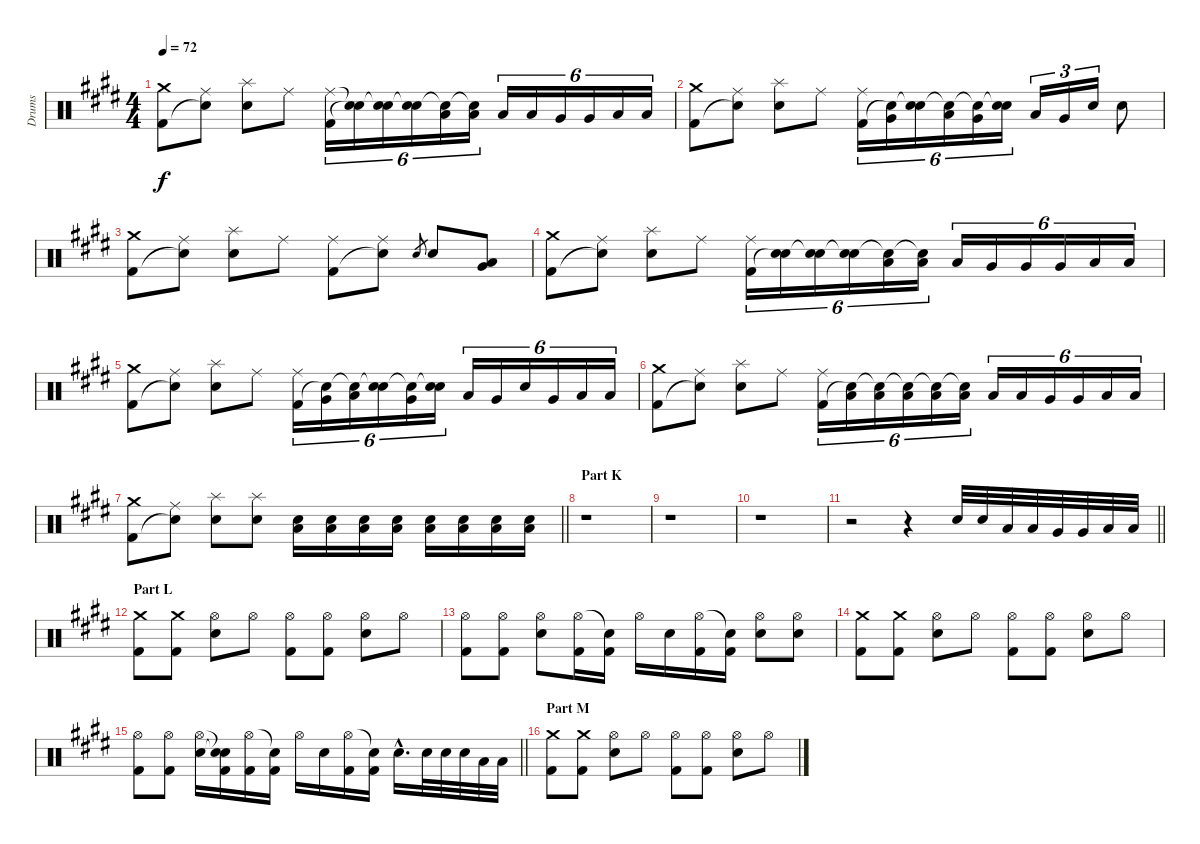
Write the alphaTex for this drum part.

\track ("Drums" "Drums") {instrument percussion}
\staff {score}
\articulation defaults
\ts (4 4)
\tempo 72
\clef neutral
\ks e
("Crash medium (hit)" "Kick (hit) 2").8{dy f} ("Ride (middle)" "Snare (hit)"{t}).8 ("Splash (hit)" "Electric Snare (hit)").8 "Ride (middle)".8 ("Ride (middle)" "Kick (hit) 2").16{tu (6 4)} ("Snare (hit)"{t} "Snare (hit)"{t}).16{tu (6 4)} ("Electric Snare (hit)" "Snare (hit)"{t}).16{tu (6 4)} ("Electric Snare (hit)" "Snare (hit)"{t}).16{tu (6 4)} ("Low Tom (hit)" "Snare (hit)"{t}).16{tu (6 4)} ("Low Tom (hit)" "Snare (hit)"{t}).16{tu (6 4)} "Low Tom (hit)".16{tu (6 4)} "Low Tom (hit)".16{tu (6 4)} "Very Low Tom (hit)".16{tu (6 4)} "Very Low Tom (hit)".16{tu (6 4)} "Low Floor Tom (hit)".16{tu (6 4)} "Low Floor Tom (hit)".16{tu (6 4)} |
("Crash medium (hit)" "Kick (hit) 2").8 ("Ride (middle)" "Snare (hit)"{t}).8 ("Splash (hit)" "Electric Snare (hit)").8 "Ride (middle)".8 ("Ride (middle)" "Kick (hit) 2").16{tu (6 4)} ("Very Low Tom (hit)" "Snare (hit)"{t}).16{tu (6 4)} ("Electric Snare (hit)" "Snare (hit)"{t}).16{tu (6 4)} ("Low Floor Tom (hit)" "Snare (hit)"{t}).16{tu (6 4)} ("Very Low Tom (hit)" "Snare (hit)"{t}).16{tu (6 4)} ("Electric Snare (hit)" "Snare (hit)"{t}).16{tu (6 4)} "Low Tom (hit)".16{tu (3 2)} "Very Low Tom (hit)".16{tu (3 2)} "Electric Snare (hit)".16{tu (3 2)} "Electric Snare (hit)".8 |
("Crash medium (hit)" "Kick (hit) 2").8 ("Ride (middle)" "Snare (hit)"{t}).8 ("Splash (hit)" "Electric Snare (hit)").8 "Ride (middle)".8 ("Ride (middle)" "Kick (hit) 2").8 ("Ride (middle)" "Snare (hit)"{t}).8 "Electric Snare (hit)".8{gr} "Electric Snare (hit)".8 ("Very Low Tom (hit)" "Low Floor Tom (hit)").8 |
("Crash medium (hit)" "Kick (hit) 2").8 ("Ride (middle)" "Snare (hit)"{t}).8 ("Splash (hit)" "Electric Snare (hit)").8 "Ride (middle)".8 ("Ride (middle)" "Kick (hit) 2").16{tu (6 4)} ("Electric Snare (hit)" "Snare (hit)"{t}).16{tu (6 4)} ("Electric Snare (hit)" "Snare (hit)"{t}).16{tu (6 4)} ("Electric Snare (hit)" "Snare (hit)"{t}).16{tu (6 4)} ("Low Tom (hit)" "Snare (hit)"{t}).16{tu (6 4)} ("Low Tom (hit)" "Snare (hit)"{t}).16{tu (6 4)} "Low Tom (hit)".16{tu (6 4)} "Very Low Tom (hit)".16{tu (6 4)} "Very Low Tom (hit)".16{tu (6 4)} "Very Low Tom (hit)".16{tu (6 4)} "Low Floor Tom (hit)".16{tu (6 4)} "Low Floor Tom (hit)".16{tu (6 4)} |
("Crash medium (hit)" "Kick (hit) 2").8 ("Ride (middle)" "Snare (hit)"{t}).8 ("Splash (hit)" "Electric Snare (hit)").8 "Ride (middle)".8 ("Ride (middle)" "Kick (hit) 2").16{tu (6 4)} ("Very Low Tom (hit)" "Snare (hit)"{t}).16{tu (6 4)} ("Low Tom (hit)" "Snare (hit)"{t}).16{tu (6 4)} ("Electric Snare (hit)" "Snare (hit)"{t}).16{tu (6 4)} ("Very Low Tom (hit)" "Snare (hit)"{t}).16{tu (6 4)} ("Electric Snare (hit)" "Snare (hit)"{t}).16{tu (6 4)} "Low Tom (hit)".16{tu (6 4)} "Very Low Tom (hit)".16{tu (6 4)} "Electric Snare (hit)".16{tu (6 4)} "Very Low Tom (hit)".16{tu (6 4)} "Low Floor Tom (hit)".16{tu (6 4)} "Low Floor Tom (hit)".16{tu (6 4)} |
("Crash medium (hit)" "Kick (hit) 2").8 ("Ride (middle)" "Snare (hit)"{t}).8 ("Splash (hit)" "Electric Snare (hit)").8 "Ride (middle)".8 ("Ride (middle)" "Kick (hit) 2").16{tu (6 4)} ("Low Tom (hit)" "Snare (hit)"{t}).16{tu (6 4)} ("Low Tom (hit)" "Snare (hit)"{t}).16{tu (6 4)} ("Low Tom (hit)" "Snare (hit)"{t}).16{tu (6 4)} ("Low Tom (hit)" "Snare (hit)"{t}).16{tu (6 4)} ("Low Tom (hit)" "Snare (hit)"{t}).16{tu (6 4)} "Low Tom (hit)".16{tu (6 4)} "Low Tom (hit)".16{tu (6 4)} "Very Low Tom (hit)".16{tu (6 4)} "Very Low Tom (hit)".16{tu (6 4)} "Low Floor Tom (hit)".16{tu (6 4)} "Low Floor Tom (hit)".16{tu (6 4)} |
\barLineRight lightlight
("Crash medium (hit)" "Kick (hit) 2").8 ("Ride (middle)" "Snare (hit)"{t}).8 ("Splash (hit)" "Electric Snare (hit)").8 ("Splash (hit)" "Electric Snare (hit)").8 ("Electric Snare (hit)" "Low Floor Tom (hit)").16 ("Electric Snare (hit)" "Low Floor Tom (hit)").16 ("Electric Snare (hit)" "Low Floor Tom (hit)").16 ("Electric Snare (hit)" "Low Floor Tom (hit)").16 ("Electric Snare (hit)" "Low Floor Tom (hit)").16 ("Electric Snare (hit)" "Low Floor Tom (hit)").16 ("Electric Snare (hit)" "Low Floor Tom (hit)").16 ("Electric Snare (hit)" "Low Floor Tom (hit)").16 |
\section ("" "Part K")
r.1 |
r.1 |
r.1 |
\barLineRight lightlight
r.2 r.4 "Electric Snare (hit)".32 "Electric Snare (hit)".32 "Low Tom (hit)".32 "Low Tom (hit)".32 "Very Low Tom (hit)".32 "Very Low Tom (hit)".32 "Low Floor Tom (hit)".32 "Low Floor Tom (hit)".32 |
\section ("" "Part L")
("Crash medium (hit)" "Kick (hit) 2").8 ("Crash medium (hit)" "Kick (hit) 2").8 ("Hi-Hat (open)" "Electric Snare (hit)").8 "Hi-Hat (open)".8 ("Hi-Hat (open)" "Kick (hit) 2").8 ("Hi-Hat (open)" "Kick (hit) 2").8 ("Hi-Hat (open)" "Electric Snare (hit)").8 "Hi-Hat (open)".8 |
("Hi-Hat (open)" "Kick (hit) 2").8 ("Hi-Hat (open)" "Kick (hit) 2").8 ("Hi-Hat (open)" "Electric Snare (hit)").8 ("Hi-Hat (open)" "Kick (hit) 2").16 ("Snare (hit)"{t} "Kick (hit) 2").16 "Hi-Hat (open)".16 "Electric Snare (hit)".16 ("Hi-Hat (open)" "Kick (hit) 2").16 ("Snare (hit)"{t} "Kick (hit) 2").16 ("Hi-Hat (open)" "Electric Snare (hit)").8 ("Hi-Hat (open)" "Electric Snare (hit)").8 |
("Crash medium (hit)" "Kick (hit) 2").8 ("Crash medium (hit)" "Kick (hit) 2").8 ("Hi-Hat (open)" "Electric Snare (hit)").8 "Hi-Hat (open)".8 ("Hi-Hat (open)" "Kick (hit) 2").8 ("Hi-Hat (open)" "Kick (hit) 2").8 ("Hi-Hat (open)" "Electric Snare (hit)").8 "Hi-Hat (open)".8 |
\barLineRight lightlight
("Hi-Hat (open)" "Kick (hit) 2").8 ("Hi-Hat (open)" "Kick (hit) 2").8 ("Hi-Hat (open)" "Electric Snare (hit)").16 ("Snare (hit)"{t} "Snare (hit)"{t} "Kick (hit) 2").16 ("Hi-Hat (open)" "Kick (hit) 2").16 ("Snare (hit)"{t} "Kick (hit) 2").16 "Hi-Hat (open)".16 "Electric Snare (hit)".16 ("Hi-Hat (open)" "Kick (hit) 2").16 ("Snare (hit)"{t} "Kick (hit) 2").16 "Electric Snare (hit)"{hac}.16{d} "Electric Snare (hit)".32 "Electric Snare (hit)".32 "Electric Snare (hit)".32 "Low Tom (hit)".32 "Low Tom (hit)".32 |
\section ("" "Part M")
("Crash medium (hit)" "Kick (hit) 2").8 ("Crash medium (hit)" "Kick (hit) 2").8 ("Hi-Hat (open)" "Electric Snare (hit)").8 "Hi-Hat (open)".8 ("Hi-Hat (open)" "Kick (hit) 2").8 ("Hi-Hat (open)" "Kick (hit) 2").8 ("Hi-Hat (open)" "Electric Snare (hit)").8 "Hi-Hat (open)".8
